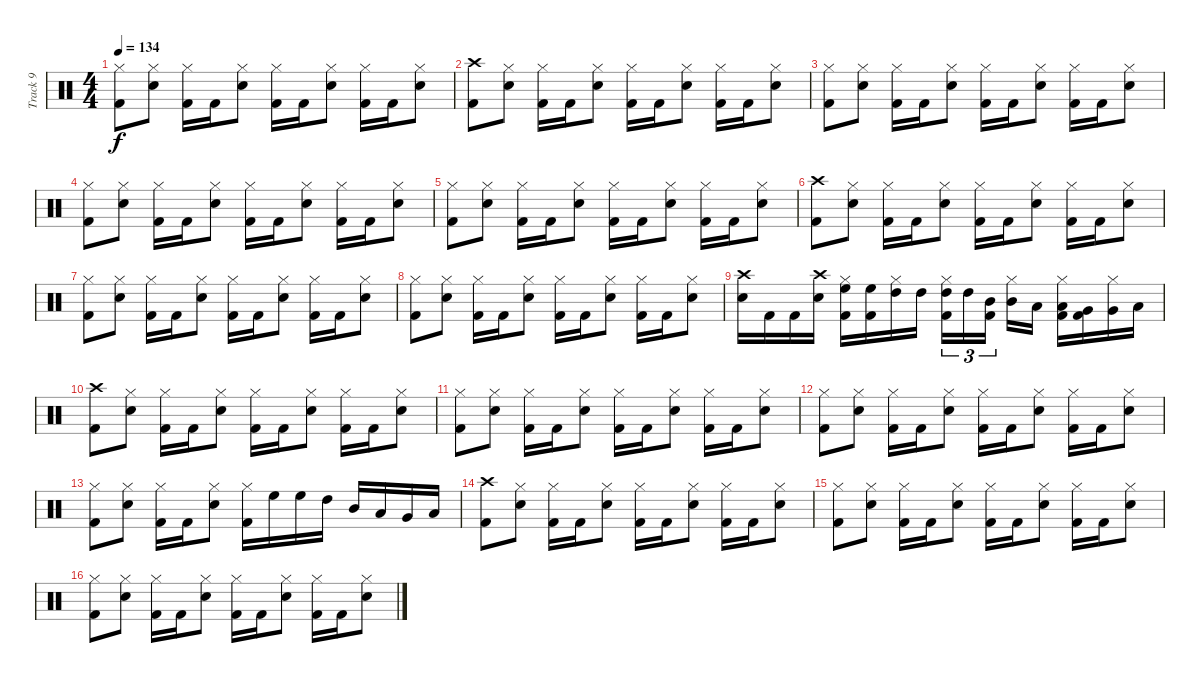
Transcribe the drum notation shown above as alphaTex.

\track ("Track 9" "Track 9") {instrument percussion}
\staff {score}
\articulation defaults
\ts (4 4)
\tempo 134
\clef neutral
\ks c
("Hi-Hat (closed)" "Kick (hit) 2").8{dy f} ("Hi-Hat (closed)" "Snare (hit) 2").8 ("Hi-Hat (closed)" "Kick (hit) 2").16 "Kick (hit) 2".16 ("Hi-Hat (closed)" "Snare (hit) 2").8 ("Hi-Hat (closed)" "Kick (hit) 2").16 "Kick (hit) 2".16 ("Hi-Hat (closed)" "Snare (hit) 2").8 ("Hi-Hat (closed)" "Kick (hit) 2").16 "Kick (hit) 2".16 ("Hi-Hat (closed)" "Snare (hit) 2").8 |
("Crash high (hit)" "Kick (hit) 2").8 ("Hi-Hat (closed)" "Snare (hit) 2").8 ("Hi-Hat (closed)" "Kick (hit) 2").16 "Kick (hit) 2".16 ("Hi-Hat (closed)" "Snare (hit) 2").8 ("Hi-Hat (closed)" "Kick (hit) 2").16 "Kick (hit) 2".16 ("Hi-Hat (closed)" "Snare (hit) 2").8 ("Hi-Hat (closed)" "Kick (hit) 2").16 "Kick (hit) 2".16 ("Hi-Hat (closed)" "Snare (hit) 2").8 |
("Hi-Hat (closed)" "Kick (hit) 2").8 ("Hi-Hat (closed)" "Snare (hit) 2").8 ("Hi-Hat (closed)" "Kick (hit) 2").16 "Kick (hit) 2".16 ("Hi-Hat (closed)" "Snare (hit) 2").8 ("Hi-Hat (closed)" "Kick (hit) 2").16 "Kick (hit) 2".16 ("Hi-Hat (closed)" "Snare (hit) 2").8 ("Hi-Hat (closed)" "Kick (hit) 2").16 "Kick (hit) 2".16 ("Hi-Hat (closed)" "Snare (hit) 2").8 |
("Hi-Hat (closed)" "Kick (hit) 2").8 ("Hi-Hat (closed)" "Snare (hit) 2").8 ("Hi-Hat (closed)" "Kick (hit) 2").16 "Kick (hit) 2".16 ("Hi-Hat (closed)" "Snare (hit) 2").8 ("Hi-Hat (closed)" "Kick (hit) 2").16 "Kick (hit) 2".16 ("Hi-Hat (closed)" "Snare (hit) 2").8 ("Hi-Hat (closed)" "Kick (hit) 2").16 "Kick (hit) 2".16 ("Hi-Hat (closed)" "Snare (hit) 2").8 |
("Hi-Hat (closed)" "Kick (hit) 2").8 ("Hi-Hat (closed)" "Snare (hit) 2").8 ("Hi-Hat (closed)" "Kick (hit) 2").16 "Kick (hit) 2".16 ("Hi-Hat (closed)" "Snare (hit) 2").8 ("Hi-Hat (closed)" "Kick (hit) 2").16 "Kick (hit) 2".16 ("Hi-Hat (closed)" "Snare (hit) 2").8 ("Hi-Hat (closed)" "Kick (hit) 2").16 "Kick (hit) 2".16 ("Hi-Hat (closed)" "Snare (hit) 2").8 |
("Crash high (hit)" "Kick (hit) 2").8 ("Hi-Hat (closed)" "Snare (hit) 2").8 ("Hi-Hat (closed)" "Kick (hit) 2").16 "Kick (hit) 2".16 ("Hi-Hat (closed)" "Snare (hit) 2").8 ("Hi-Hat (closed)" "Kick (hit) 2").16 "Kick (hit) 2".16 ("Hi-Hat (closed)" "Snare (hit) 2").8 ("Hi-Hat (closed)" "Kick (hit) 2").16 "Kick (hit) 2".16 ("Hi-Hat (closed)" "Snare (hit) 2").8 |
("Hi-Hat (closed)" "Kick (hit) 2").8 ("Hi-Hat (closed)" "Snare (hit) 2").8 ("Hi-Hat (closed)" "Kick (hit) 2").16 "Kick (hit) 2".16 ("Hi-Hat (closed)" "Snare (hit) 2").8 ("Hi-Hat (closed)" "Kick (hit) 2").16 "Kick (hit) 2".16 ("Hi-Hat (closed)" "Snare (hit) 2").8 ("Hi-Hat (closed)" "Kick (hit) 2").16 "Kick (hit) 2".16 ("Hi-Hat (closed)" "Snare (hit) 2").8 |
("Hi-Hat (closed)" "Kick (hit) 2").8 ("Hi-Hat (closed)" "Snare (hit) 2").8 ("Hi-Hat (closed)" "Kick (hit) 2").16 "Kick (hit) 2".16 ("Hi-Hat (closed)" "Snare (hit) 2").8 ("Hi-Hat (closed)" "Kick (hit) 2").16 "Kick (hit) 2".16 ("Hi-Hat (closed)" "Snare (hit) 2").8 ("Hi-Hat (closed)" "Kick (hit) 2").16 "Kick (hit) 2".16 ("Hi-Hat (closed)" "Snare (hit) 2").8 |
("Crash high (hit)" "Snare (hit) 2").16 "Kick (hit) 2".16 "Kick (hit) 2".16 ("Crash high (hit)" "Snare (hit) 2").16 ("Hi-Hat (closed)" "High Floor Tom (hit)" "Kick (hit) 2").16 ("High Floor Tom (hit)" "Kick (hit) 2").16 ("Hi-Hat (closed)" "High Tom (hit)").16 "High Tom (hit)".16 ("Hi-Hat (closed)" "High Tom (hit)" "Kick (hit) 2").16{tu (3 2)} "High Tom (hit)".16{tu (3 2)} ("Mid Tom (hit)" "Kick (hit) 2").16{tu (3 2) beam splitsecondary} ("Hi-Hat (closed)" "Mid Tom (hit)").16 "Low Tom (hit)".16 ("Hi-Hat (closed)" "Low Tom (hit)" "Kick (hit) 2").16 ("Very Low Tom (hit)" "Kick (hit) 2").16 ("Hi-Hat (closed)" "Very Low Tom (hit)").16 "Low Floor Tom (hit)".16 |
("Crash high (hit)" "Kick (hit) 2").8 ("Hi-Hat (closed)" "Snare (hit) 2").8 ("Hi-Hat (closed)" "Kick (hit) 2").16 "Kick (hit) 2".16 ("Hi-Hat (closed)" "Snare (hit) 2").8 ("Hi-Hat (closed)" "Kick (hit) 2").16 "Kick (hit) 2".16 ("Hi-Hat (closed)" "Snare (hit) 2").8 ("Hi-Hat (closed)" "Kick (hit) 2").16 "Kick (hit) 2".16 ("Hi-Hat (closed)" "Snare (hit) 2").8 |
("Hi-Hat (closed)" "Kick (hit) 2").8 ("Hi-Hat (closed)" "Snare (hit) 2").8 ("Hi-Hat (closed)" "Kick (hit) 2").16 "Kick (hit) 2".16 ("Hi-Hat (closed)" "Snare (hit) 2").8 ("Hi-Hat (closed)" "Kick (hit) 2").16 "Kick (hit) 2".16 ("Hi-Hat (closed)" "Snare (hit) 2").8 ("Hi-Hat (closed)" "Kick (hit) 2").16 "Kick (hit) 2".16 ("Hi-Hat (closed)" "Snare (hit) 2").8 |
("Hi-Hat (closed)" "Kick (hit) 2").8 ("Hi-Hat (closed)" "Snare (hit) 2").8 ("Hi-Hat (closed)" "Kick (hit) 2").16 "Kick (hit) 2".16 ("Hi-Hat (closed)" "Snare (hit) 2").8 ("Hi-Hat (closed)" "Kick (hit) 2").16 "Kick (hit) 2".16 ("Hi-Hat (closed)" "Snare (hit) 2").8 ("Hi-Hat (closed)" "Kick (hit) 2").16 "Kick (hit) 2".16 ("Hi-Hat (closed)" "Snare (hit) 2").8 |
("Hi-Hat (closed)" "Kick (hit) 2").8 ("Hi-Hat (closed)" "Snare (hit) 2").8 ("Hi-Hat (closed)" "Kick (hit) 2").16 "Kick (hit) 2".16 ("Hi-Hat (closed)" "Snare (hit) 2").8 ("Hi-Hat (closed)" "Kick (hit) 2").16 "High Floor Tom (hit)".16 "High Floor Tom (hit)".16 "High Tom (hit)".16 "Mid Tom (hit)".16 "Low Tom (hit)".16 "Very Low Tom (hit)".16 "Low Floor Tom (hit)".16 |
("Crash high (hit)" "Kick (hit) 2").8 ("Hi-Hat (closed)" "Snare (hit) 2").8 ("Hi-Hat (closed)" "Kick (hit) 2").16 "Kick (hit) 2".16 ("Hi-Hat (closed)" "Snare (hit) 2").8 ("Hi-Hat (closed)" "Kick (hit) 2").16 "Kick (hit) 2".16 ("Hi-Hat (closed)" "Snare (hit) 2").8 ("Hi-Hat (closed)" "Kick (hit) 2").16 "Kick (hit) 2".16 ("Hi-Hat (closed)" "Snare (hit) 2").8 |
("Hi-Hat (closed)" "Kick (hit) 2").8 ("Hi-Hat (closed)" "Snare (hit) 2").8 ("Hi-Hat (closed)" "Kick (hit) 2").16 "Kick (hit) 2".16 ("Hi-Hat (closed)" "Snare (hit) 2").8 ("Hi-Hat (closed)" "Kick (hit) 2").16 "Kick (hit) 2".16 ("Hi-Hat (closed)" "Snare (hit) 2").8 ("Hi-Hat (closed)" "Kick (hit) 2").16 "Kick (hit) 2".16 ("Hi-Hat (closed)" "Snare (hit) 2").8 |
("Hi-Hat (closed)" "Kick (hit) 2").8 ("Hi-Hat (closed)" "Snare (hit) 2").8 ("Hi-Hat (closed)" "Kick (hit) 2").16 "Kick (hit) 2".16 ("Hi-Hat (closed)" "Snare (hit) 2").8 ("Hi-Hat (closed)" "Kick (hit) 2").16 "Kick (hit) 2".16 ("Hi-Hat (closed)" "Snare (hit) 2").8 ("Hi-Hat (closed)" "Kick (hit) 2").16 "Kick (hit) 2".16 ("Hi-Hat (closed)" "Snare (hit) 2").8
